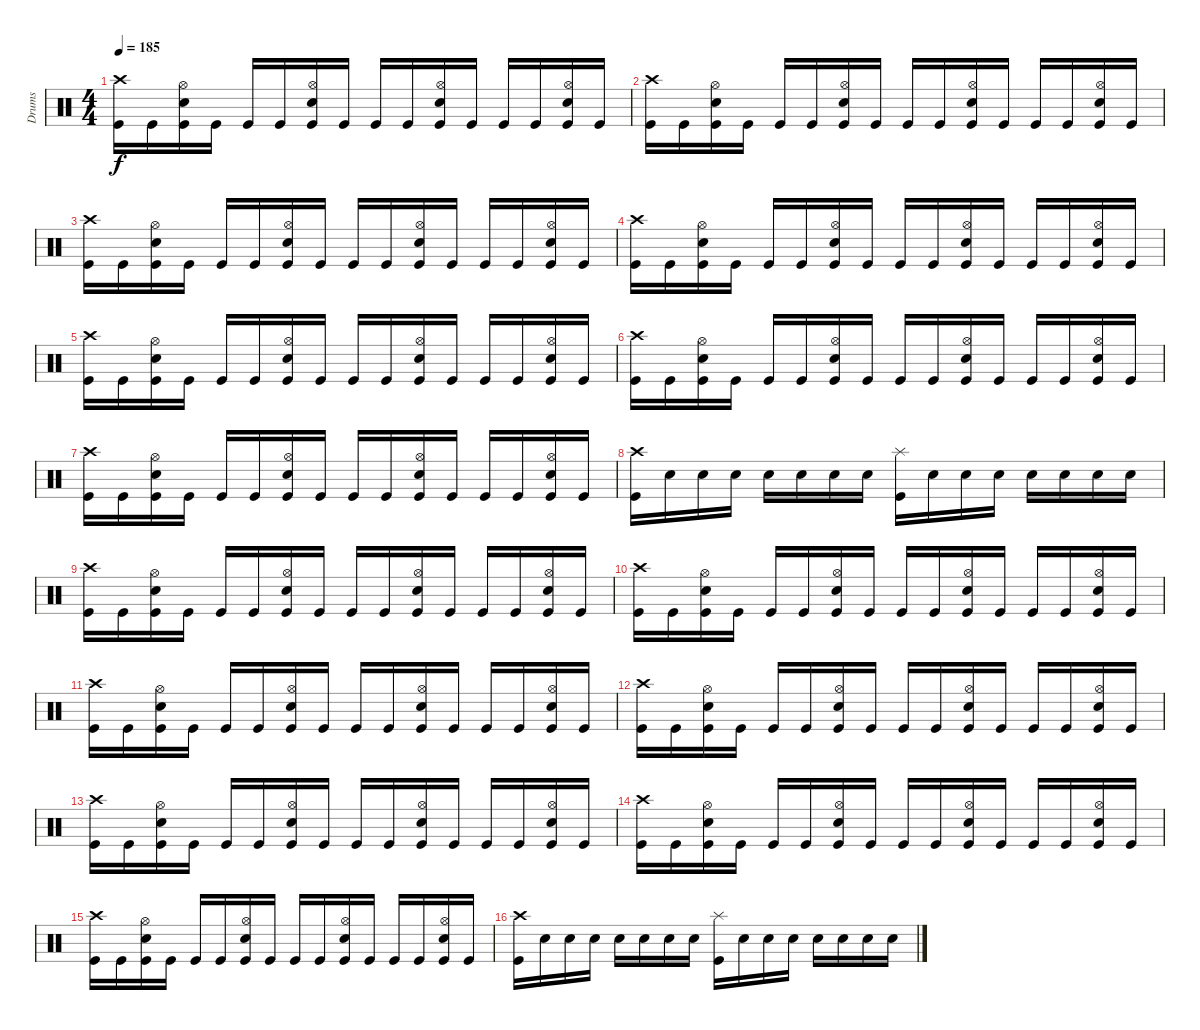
\track ("Drums" "Drums") {instrument percussion}
\staff {score}
\articulation defaults
\ts (4 4)
\tempo 185
\clef neutral
\ks c
("Crash high (hit)" "Kick (hit)").16{dy f} "Kick (hit)".16 ("Hi-Hat (open)" "Electric Snare (hit)" "Kick (hit)").16 "Kick (hit)".16 "Kick (hit)".16 "Kick (hit)".16 ("Hi-Hat (open)" "Electric Snare (hit)" "Kick (hit)").16 "Kick (hit)".16 "Kick (hit)".16 "Kick (hit)".16 ("Hi-Hat (open)" "Electric Snare (hit)" "Kick (hit)").16 "Kick (hit)".16 "Kick (hit)".16 "Kick (hit)".16 ("Hi-Hat (open)" "Electric Snare (hit)" "Kick (hit)").16 "Kick (hit)".16 |
("Crash high (hit)" "Kick (hit)").16 "Kick (hit)".16 ("Hi-Hat (open)" "Electric Snare (hit)" "Kick (hit)").16 "Kick (hit)".16 "Kick (hit)".16 "Kick (hit)".16 ("Hi-Hat (open)" "Electric Snare (hit)" "Kick (hit)").16 "Kick (hit)".16 "Kick (hit)".16 "Kick (hit)".16 ("Hi-Hat (open)" "Electric Snare (hit)" "Kick (hit)").16 "Kick (hit)".16 "Kick (hit)".16 "Kick (hit)".16 ("Hi-Hat (open)" "Electric Snare (hit)" "Kick (hit)").16 "Kick (hit)".16 |
("Crash high (hit)" "Kick (hit)").16 "Kick (hit)".16 ("Hi-Hat (open)" "Electric Snare (hit)" "Kick (hit)").16 "Kick (hit)".16 "Kick (hit)".16 "Kick (hit)".16 ("Hi-Hat (open)" "Electric Snare (hit)" "Kick (hit)").16 "Kick (hit)".16 "Kick (hit)".16 "Kick (hit)".16 ("Hi-Hat (open)" "Electric Snare (hit)" "Kick (hit)").16 "Kick (hit)".16 "Kick (hit)".16 "Kick (hit)".16 ("Hi-Hat (open)" "Electric Snare (hit)" "Kick (hit)").16 "Kick (hit)".16 |
("Crash high (hit)" "Kick (hit)").16 "Kick (hit)".16 ("Hi-Hat (open)" "Electric Snare (hit)" "Kick (hit)").16 "Kick (hit)".16 "Kick (hit)".16 "Kick (hit)".16 ("Hi-Hat (open)" "Electric Snare (hit)" "Kick (hit)").16 "Kick (hit)".16 "Kick (hit)".16 "Kick (hit)".16 ("Hi-Hat (open)" "Electric Snare (hit)" "Kick (hit)").16 "Kick (hit)".16 "Kick (hit)".16 "Kick (hit)".16 ("Hi-Hat (open)" "Electric Snare (hit)" "Kick (hit)").16 "Kick (hit)".16 |
("Crash high (hit)" "Kick (hit)").16 "Kick (hit)".16 ("Hi-Hat (open)" "Electric Snare (hit)" "Kick (hit)").16 "Kick (hit)".16 "Kick (hit)".16 "Kick (hit)".16 ("Hi-Hat (open)" "Electric Snare (hit)" "Kick (hit)").16 "Kick (hit)".16 "Kick (hit)".16 "Kick (hit)".16 ("Hi-Hat (open)" "Electric Snare (hit)" "Kick (hit)").16 "Kick (hit)".16 "Kick (hit)".16 "Kick (hit)".16 ("Hi-Hat (open)" "Electric Snare (hit)" "Kick (hit)").16 "Kick (hit)".16 |
("Crash high (hit)" "Kick (hit)").16 "Kick (hit)".16 ("Hi-Hat (open)" "Electric Snare (hit)" "Kick (hit)").16 "Kick (hit)".16 "Kick (hit)".16 "Kick (hit)".16 ("Hi-Hat (open)" "Electric Snare (hit)" "Kick (hit)").16 "Kick (hit)".16 "Kick (hit)".16 "Kick (hit)".16 ("Hi-Hat (open)" "Electric Snare (hit)" "Kick (hit)").16 "Kick (hit)".16 "Kick (hit)".16 "Kick (hit)".16 ("Hi-Hat (open)" "Electric Snare (hit)" "Kick (hit)").16 "Kick (hit)".16 |
("Crash high (hit)" "Kick (hit)").16 "Kick (hit)".16 ("Hi-Hat (open)" "Electric Snare (hit)" "Kick (hit)").16 "Kick (hit)".16 "Kick (hit)".16 "Kick (hit)".16 ("Hi-Hat (open)" "Electric Snare (hit)" "Kick (hit)").16 "Kick (hit)".16 "Kick (hit)".16 "Kick (hit)".16 ("Hi-Hat (open)" "Electric Snare (hit)" "Kick (hit)").16 "Kick (hit)".16 "Kick (hit)".16 "Kick (hit)".16 ("Hi-Hat (open)" "Electric Snare (hit)" "Kick (hit)").16 "Kick (hit)".16 |
("Crash high (hit)" "Kick (hit)").16 "Electric Snare (hit)".16 "Electric Snare (hit)".16 "Electric Snare (hit)".16 "Electric Snare (hit)".16 "Electric Snare (hit)".16 "Electric Snare (hit)".16 "Electric Snare (hit)".16 ("Splash (hit)" "Kick (hit)").16 "Electric Snare (hit)".16 "Electric Snare (hit)".16 "Electric Snare (hit)".16 "Electric Snare (hit)".16 "Electric Snare (hit)".16 "Electric Snare (hit)".16 "Electric Snare (hit)".16 |
("Crash high (hit)" "Kick (hit)").16 "Kick (hit)".16 ("Hi-Hat (open)" "Electric Snare (hit)" "Kick (hit)").16 "Kick (hit)".16 "Kick (hit)".16 "Kick (hit)".16 ("Hi-Hat (open)" "Electric Snare (hit)" "Kick (hit)").16 "Kick (hit)".16 "Kick (hit)".16 "Kick (hit)".16 ("Hi-Hat (open)" "Electric Snare (hit)" "Kick (hit)").16 "Kick (hit)".16 "Kick (hit)".16 "Kick (hit)".16 ("Hi-Hat (open)" "Electric Snare (hit)" "Kick (hit)").16 "Kick (hit)".16 |
("Crash high (hit)" "Kick (hit)").16 "Kick (hit)".16 ("Hi-Hat (open)" "Electric Snare (hit)" "Kick (hit)").16 "Kick (hit)".16 "Kick (hit)".16 "Kick (hit)".16 ("Hi-Hat (open)" "Electric Snare (hit)" "Kick (hit)").16 "Kick (hit)".16 "Kick (hit)".16 "Kick (hit)".16 ("Hi-Hat (open)" "Electric Snare (hit)" "Kick (hit)").16 "Kick (hit)".16 "Kick (hit)".16 "Kick (hit)".16 ("Hi-Hat (open)" "Electric Snare (hit)" "Kick (hit)").16 "Kick (hit)".16 |
("Crash high (hit)" "Kick (hit)").16 "Kick (hit)".16 ("Hi-Hat (open)" "Electric Snare (hit)" "Kick (hit)").16 "Kick (hit)".16 "Kick (hit)".16 "Kick (hit)".16 ("Hi-Hat (open)" "Electric Snare (hit)" "Kick (hit)").16 "Kick (hit)".16 "Kick (hit)".16 "Kick (hit)".16 ("Hi-Hat (open)" "Electric Snare (hit)" "Kick (hit)").16 "Kick (hit)".16 "Kick (hit)".16 "Kick (hit)".16 ("Hi-Hat (open)" "Electric Snare (hit)" "Kick (hit)").16 "Kick (hit)".16 |
("Crash high (hit)" "Kick (hit)").16 "Kick (hit)".16 ("Hi-Hat (open)" "Electric Snare (hit)" "Kick (hit)").16 "Kick (hit)".16 "Kick (hit)".16 "Kick (hit)".16 ("Hi-Hat (open)" "Electric Snare (hit)" "Kick (hit)").16 "Kick (hit)".16 "Kick (hit)".16 "Kick (hit)".16 ("Hi-Hat (open)" "Electric Snare (hit)" "Kick (hit)").16 "Kick (hit)".16 "Kick (hit)".16 "Kick (hit)".16 ("Hi-Hat (open)" "Electric Snare (hit)" "Kick (hit)").16 "Kick (hit)".16 |
("Crash high (hit)" "Kick (hit)").16 "Kick (hit)".16 ("Hi-Hat (open)" "Electric Snare (hit)" "Kick (hit)").16 "Kick (hit)".16 "Kick (hit)".16 "Kick (hit)".16 ("Hi-Hat (open)" "Electric Snare (hit)" "Kick (hit)").16 "Kick (hit)".16 "Kick (hit)".16 "Kick (hit)".16 ("Hi-Hat (open)" "Electric Snare (hit)" "Kick (hit)").16 "Kick (hit)".16 "Kick (hit)".16 "Kick (hit)".16 ("Hi-Hat (open)" "Electric Snare (hit)" "Kick (hit)").16 "Kick (hit)".16 |
("Crash high (hit)" "Kick (hit)").16 "Kick (hit)".16 ("Hi-Hat (open)" "Electric Snare (hit)" "Kick (hit)").16 "Kick (hit)".16 "Kick (hit)".16 "Kick (hit)".16 ("Hi-Hat (open)" "Electric Snare (hit)" "Kick (hit)").16 "Kick (hit)".16 "Kick (hit)".16 "Kick (hit)".16 ("Hi-Hat (open)" "Electric Snare (hit)" "Kick (hit)").16 "Kick (hit)".16 "Kick (hit)".16 "Kick (hit)".16 ("Hi-Hat (open)" "Electric Snare (hit)" "Kick (hit)").16 "Kick (hit)".16 |
("Crash high (hit)" "Kick (hit)").16 "Kick (hit)".16 ("Hi-Hat (open)" "Electric Snare (hit)" "Kick (hit)").16 "Kick (hit)".16 "Kick (hit)".16 "Kick (hit)".16 ("Hi-Hat (open)" "Electric Snare (hit)" "Kick (hit)").16 "Kick (hit)".16 "Kick (hit)".16 "Kick (hit)".16 ("Hi-Hat (open)" "Electric Snare (hit)" "Kick (hit)").16 "Kick (hit)".16 "Kick (hit)".16 "Kick (hit)".16 ("Hi-Hat (open)" "Electric Snare (hit)" "Kick (hit)").16 "Kick (hit)".16 |
("Crash high (hit)" "Kick (hit)").16 "Electric Snare (hit)".16 "Electric Snare (hit)".16 "Electric Snare (hit)".16 "Electric Snare (hit)".16 "Electric Snare (hit)".16 "Electric Snare (hit)".16 "Electric Snare (hit)".16 ("Splash (hit)" "Kick (hit)").16 "Electric Snare (hit)".16 "Electric Snare (hit)".16 "Electric Snare (hit)".16 "Electric Snare (hit)".16 "Electric Snare (hit)".16 "Electric Snare (hit)".16 "Electric Snare (hit)".16
